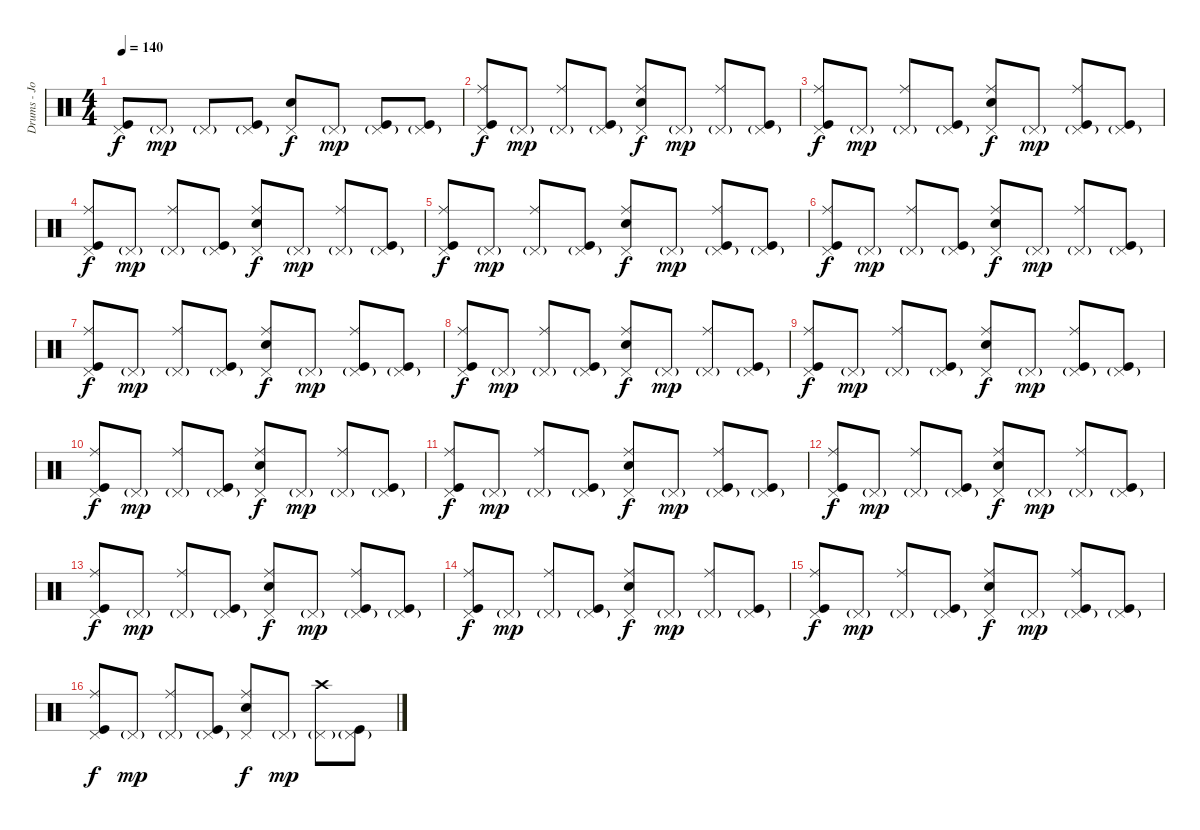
\track ("Drums - Josh Klinghoffer" "Drums - Jo") {instrument percussion}
\staff {score}
\articulation defaults
\ts (4 4)
\tempo 140
\clef neutral
\ks c
("Pedal Hi-Hat (hit)" "Kick (hit)").8{dy f} "Pedal Hi-Hat (hit)"{g}.8{dy mp} "Pedal Hi-Hat (hit)"{g}.8 ("Pedal Hi-Hat (hit)"{g} "Kick (hit)").8 ("Pedal Hi-Hat (hit)" "Electric Snare (hit)").8{dy f} "Pedal Hi-Hat (hit)"{g}.8{dy mp} ("Pedal Hi-Hat (hit)"{g} "Kick (hit)").8 ("Pedal Hi-Hat (hit)"{g} "Kick (hit)").8 |
("Ride (middle)" "Pedal Hi-Hat (hit)" "Kick (hit)").8{dy f} "Pedal Hi-Hat (hit)"{g}.8{dy mp} ("Ride (middle)" "Pedal Hi-Hat (hit)"{g}).8 ("Pedal Hi-Hat (hit)"{g} "Kick (hit)").8 ("Ride (middle)" "Pedal Hi-Hat (hit)" "Electric Snare (hit)").8{dy f} "Pedal Hi-Hat (hit)"{g}.8{dy mp} ("Ride (middle)" "Pedal Hi-Hat (hit)"{g}).8 ("Pedal Hi-Hat (hit)"{g} "Kick (hit)").8 |
("Ride (middle)" "Pedal Hi-Hat (hit)" "Kick (hit)").8{dy f} "Pedal Hi-Hat (hit)"{g}.8{dy mp} ("Ride (middle)" "Pedal Hi-Hat (hit)"{g}).8 ("Pedal Hi-Hat (hit)"{g} "Kick (hit)").8 ("Ride (middle)" "Pedal Hi-Hat (hit)" "Electric Snare (hit)").8{dy f} "Pedal Hi-Hat (hit)"{g}.8{dy mp} ("Ride (middle)" "Pedal Hi-Hat (hit)"{g} "Kick (hit)").8 ("Pedal Hi-Hat (hit)"{g} "Kick (hit)").8 |
("Ride (middle)" "Pedal Hi-Hat (hit)" "Kick (hit)").8{dy f} "Pedal Hi-Hat (hit)"{g}.8{dy mp} ("Ride (middle)" "Pedal Hi-Hat (hit)"{g}).8 ("Pedal Hi-Hat (hit)"{g} "Kick (hit)").8 ("Ride (middle)" "Pedal Hi-Hat (hit)" "Electric Snare (hit)").8{dy f} "Pedal Hi-Hat (hit)"{g}.8{dy mp} ("Ride (middle)" "Pedal Hi-Hat (hit)"{g}).8 ("Pedal Hi-Hat (hit)"{g} "Kick (hit)").8 |
("Ride (middle)" "Pedal Hi-Hat (hit)" "Kick (hit)").8{dy f} "Pedal Hi-Hat (hit)"{g}.8{dy mp} ("Ride (middle)" "Pedal Hi-Hat (hit)"{g}).8 ("Pedal Hi-Hat (hit)"{g} "Kick (hit)").8 ("Ride (middle)" "Pedal Hi-Hat (hit)" "Electric Snare (hit)").8{dy f} "Pedal Hi-Hat (hit)"{g}.8{dy mp} ("Ride (middle)" "Pedal Hi-Hat (hit)"{g} "Kick (hit)").8 ("Pedal Hi-Hat (hit)"{g} "Kick (hit)").8 |
("Ride (middle)" "Pedal Hi-Hat (hit)" "Kick (hit)").8{dy f} "Pedal Hi-Hat (hit)"{g}.8{dy mp} ("Ride (middle)" "Pedal Hi-Hat (hit)"{g}).8 ("Pedal Hi-Hat (hit)"{g} "Kick (hit)").8 ("Ride (middle)" "Pedal Hi-Hat (hit)" "Electric Snare (hit)").8{dy f} "Pedal Hi-Hat (hit)"{g}.8{dy mp} ("Ride (middle)" "Pedal Hi-Hat (hit)"{g}).8 ("Pedal Hi-Hat (hit)"{g} "Kick (hit)").8 |
("Ride (middle)" "Pedal Hi-Hat (hit)" "Kick (hit)").8{dy f} "Pedal Hi-Hat (hit)"{g}.8{dy mp} ("Ride (middle)" "Pedal Hi-Hat (hit)"{g}).8 ("Pedal Hi-Hat (hit)"{g} "Kick (hit)").8 ("Ride (middle)" "Pedal Hi-Hat (hit)" "Electric Snare (hit)").8{dy f} "Pedal Hi-Hat (hit)"{g}.8{dy mp} ("Ride (middle)" "Pedal Hi-Hat (hit)"{g} "Kick (hit)").8 ("Pedal Hi-Hat (hit)"{g} "Kick (hit)").8 |
("Ride (middle)" "Pedal Hi-Hat (hit)" "Kick (hit)").8{dy f} "Pedal Hi-Hat (hit)"{g}.8{dy mp} ("Ride (middle)" "Pedal Hi-Hat (hit)"{g}).8 ("Pedal Hi-Hat (hit)"{g} "Kick (hit)").8 ("Ride (middle)" "Pedal Hi-Hat (hit)" "Electric Snare (hit)").8{dy f} "Pedal Hi-Hat (hit)"{g}.8{dy mp} ("Ride (middle)" "Pedal Hi-Hat (hit)"{g}).8 ("Pedal Hi-Hat (hit)"{g} "Kick (hit)").8 |
("Ride (middle)" "Pedal Hi-Hat (hit)" "Kick (hit)").8{dy f} "Pedal Hi-Hat (hit)"{g}.8{dy mp} ("Ride (middle)" "Pedal Hi-Hat (hit)"{g}).8 ("Pedal Hi-Hat (hit)"{g} "Kick (hit)").8 ("Ride (middle)" "Pedal Hi-Hat (hit)" "Electric Snare (hit)").8{dy f} "Pedal Hi-Hat (hit)"{g}.8{dy mp} ("Ride (middle)" "Pedal Hi-Hat (hit)"{g} "Kick (hit)").8 ("Pedal Hi-Hat (hit)"{g} "Kick (hit)").8 |
("Ride (middle)" "Pedal Hi-Hat (hit)" "Kick (hit)").8{dy f} "Pedal Hi-Hat (hit)"{g}.8{dy mp} ("Ride (middle)" "Pedal Hi-Hat (hit)"{g}).8 ("Pedal Hi-Hat (hit)"{g} "Kick (hit)").8 ("Ride (middle)" "Pedal Hi-Hat (hit)" "Electric Snare (hit)").8{dy f} "Pedal Hi-Hat (hit)"{g}.8{dy mp} ("Ride (middle)" "Pedal Hi-Hat (hit)"{g}).8 ("Pedal Hi-Hat (hit)"{g} "Kick (hit)").8 |
("Ride (middle)" "Pedal Hi-Hat (hit)" "Kick (hit)").8{dy f} "Pedal Hi-Hat (hit)"{g}.8{dy mp} ("Ride (middle)" "Pedal Hi-Hat (hit)"{g}).8 ("Pedal Hi-Hat (hit)"{g} "Kick (hit)").8 ("Ride (middle)" "Pedal Hi-Hat (hit)" "Electric Snare (hit)").8{dy f} "Pedal Hi-Hat (hit)"{g}.8{dy mp} ("Ride (middle)" "Pedal Hi-Hat (hit)"{g} "Kick (hit)").8 ("Pedal Hi-Hat (hit)"{g} "Kick (hit)").8 |
("Ride (middle)" "Pedal Hi-Hat (hit)" "Kick (hit)").8{dy f} "Pedal Hi-Hat (hit)"{g}.8{dy mp} ("Ride (middle)" "Pedal Hi-Hat (hit)"{g}).8 ("Pedal Hi-Hat (hit)"{g} "Kick (hit)").8 ("Ride (middle)" "Pedal Hi-Hat (hit)" "Electric Snare (hit)").8{dy f} "Pedal Hi-Hat (hit)"{g}.8{dy mp} ("Ride (middle)" "Pedal Hi-Hat (hit)"{g}).8 ("Pedal Hi-Hat (hit)"{g} "Kick (hit)").8 |
("Ride (middle)" "Pedal Hi-Hat (hit)" "Kick (hit)").8{dy f} "Pedal Hi-Hat (hit)"{g}.8{dy mp} ("Ride (middle)" "Pedal Hi-Hat (hit)"{g}).8 ("Pedal Hi-Hat (hit)"{g} "Kick (hit)").8 ("Ride (middle)" "Pedal Hi-Hat (hit)" "Electric Snare (hit)").8{dy f} "Pedal Hi-Hat (hit)"{g}.8{dy mp} ("Ride (middle)" "Pedal Hi-Hat (hit)"{g} "Kick (hit)").8 ("Pedal Hi-Hat (hit)"{g} "Kick (hit)").8 |
("Ride (middle)" "Pedal Hi-Hat (hit)" "Kick (hit)").8{dy f} "Pedal Hi-Hat (hit)"{g}.8{dy mp} ("Ride (middle)" "Pedal Hi-Hat (hit)"{g}).8 ("Pedal Hi-Hat (hit)"{g} "Kick (hit)").8 ("Ride (middle)" "Pedal Hi-Hat (hit)" "Electric Snare (hit)").8{dy f} "Pedal Hi-Hat (hit)"{g}.8{dy mp} ("Ride (middle)" "Pedal Hi-Hat (hit)"{g}).8 ("Pedal Hi-Hat (hit)"{g} "Kick (hit)").8 |
("Ride (middle)" "Pedal Hi-Hat (hit)" "Kick (hit)").8{dy f} "Pedal Hi-Hat (hit)"{g}.8{dy mp} ("Ride (middle)" "Pedal Hi-Hat (hit)"{g}).8 ("Pedal Hi-Hat (hit)"{g} "Kick (hit)").8 ("Ride (middle)" "Pedal Hi-Hat (hit)" "Electric Snare (hit)").8{dy f} "Pedal Hi-Hat (hit)"{g}.8{dy mp} ("Ride (middle)" "Pedal Hi-Hat (hit)"{g} "Kick (hit)").8 ("Pedal Hi-Hat (hit)"{g} "Kick (hit)").8 |
("Ride (middle)" "Pedal Hi-Hat (hit)" "Kick (hit)").8{dy f} "Pedal Hi-Hat (hit)"{g}.8{dy mp} ("Ride (middle)" "Pedal Hi-Hat (hit)"{g}).8 ("Pedal Hi-Hat (hit)"{g} "Kick (hit)").8 ("Ride (middle)" "Pedal Hi-Hat (hit)" "Electric Snare (hit)").8{dy f} "Pedal Hi-Hat (hit)"{g}.8{dy mp} ("Crash high (hit)" "Pedal Hi-Hat (hit)"{g}).8 ("Pedal Hi-Hat (hit)"{g} "Kick (hit)").8
